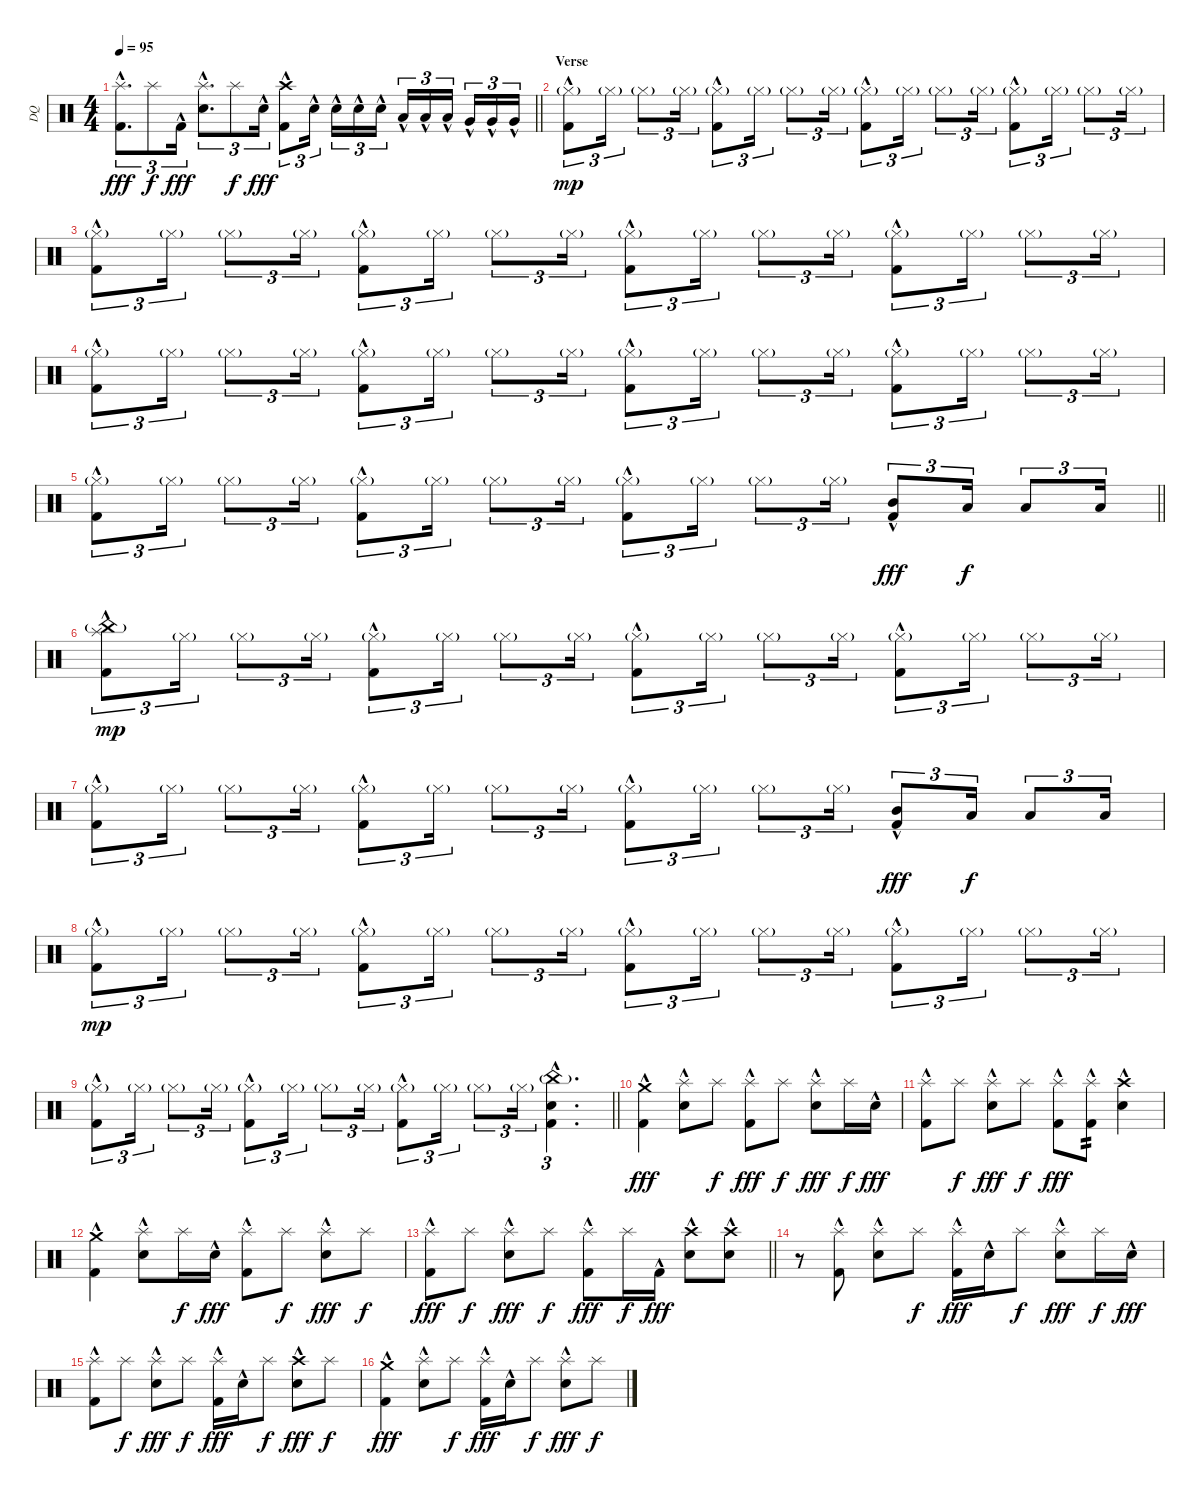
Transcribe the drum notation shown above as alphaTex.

\track ("DQ" "DQ") {instrument percussion}
\staff {score}
\articulation defaults
\ts (4 4)
\tempo 95
\clef neutral
\barLineRight lightlight
\ks c
("Kick (hit) 2"{hac} "Splash (hit)").8{d tu (3 2) dy fff} "Splash (hit)".8{tu (3 2) dy f} "Kick (hit) 2"{hac}.16{tu (3 2) dy fff} ("Snare (hit) 2"{hac} "Splash (hit)").8{d tu (3 2)} "Splash (hit)".8{tu (3 2) dy f} "Snare (hit) 2"{hac}.16{tu (3 2) dy fff} ("Kick (hit) 2"{hac} "Crash high (hit)").8{tu (3 2)} "Snare (hit) 2"{hac}.16{tu (3 2) beam splitsecondary} "Snare (hit) 2"{hac}.16{tu (3 2)} "Snare (hit) 2"{hac}.16{tu (3 2)} "Snare (hit) 2"{hac}.16{tu (3 2)} "Low Tom (hit)"{hac}.16{tu (3 2)} "Low Tom (hit)"{hac}.16{tu (3 2)} "Low Tom (hit)"{hac}.16{tu (3 2) beam splitsecondary} "Very Low Tom (hit)"{hac}.16{tu (3 2)} "Very Low Tom (hit)"{hac}.16{tu (3 2)} "Very Low Tom (hit)"{hac}.16{tu (3 2)} |
\section ("" "Verse")
("Kick (hit) 2"{hac} "Hi-Hat (closed)"{g}).8{tu (3 2) dy mp} "Hi-Hat (closed)"{g}.16{tu (3 2)} "Hi-Hat (closed)"{g}.8{tu (3 2)} "Hi-Hat (closed)"{g}.16{tu (3 2)} ("Kick (hit) 2"{hac} "Hi-Hat (closed)"{g}).8{tu (3 2)} "Hi-Hat (closed)"{g}.16{tu (3 2)} "Hi-Hat (closed)"{g}.8{tu (3 2)} "Hi-Hat (closed)"{g}.16{tu (3 2)} ("Kick (hit) 2"{hac} "Hi-Hat (closed)"{g}).8{tu (3 2)} "Hi-Hat (closed)"{g}.16{tu (3 2)} "Hi-Hat (closed)"{g}.8{tu (3 2)} "Hi-Hat (closed)"{g}.16{tu (3 2)} ("Kick (hit) 2"{hac} "Hi-Hat (closed)"{g}).8{tu (3 2)} "Hi-Hat (closed)"{g}.16{tu (3 2)} "Hi-Hat (closed)"{g}.8{tu (3 2)} "Hi-Hat (closed)"{g}.16{tu (3 2)} |
("Kick (hit) 2"{hac} "Hi-Hat (closed)"{g}).8{tu (3 2)} "Hi-Hat (closed)"{g}.16{tu (3 2)} "Hi-Hat (closed)"{g}.8{tu (3 2)} "Hi-Hat (closed)"{g}.16{tu (3 2)} ("Kick (hit) 2"{hac} "Hi-Hat (closed)"{g}).8{tu (3 2)} "Hi-Hat (closed)"{g}.16{tu (3 2)} "Hi-Hat (closed)"{g}.8{tu (3 2)} "Hi-Hat (closed)"{g}.16{tu (3 2)} ("Kick (hit) 2"{hac} "Hi-Hat (closed)"{g}).8{tu (3 2)} "Hi-Hat (closed)"{g}.16{tu (3 2)} "Hi-Hat (closed)"{g}.8{tu (3 2)} "Hi-Hat (closed)"{g}.16{tu (3 2)} ("Kick (hit) 2"{hac} "Hi-Hat (closed)"{g}).8{tu (3 2)} "Hi-Hat (closed)"{g}.16{tu (3 2)} "Hi-Hat (closed)"{g}.8{tu (3 2)} "Hi-Hat (closed)"{g}.16{tu (3 2)} |
("Kick (hit) 2"{hac} "Hi-Hat (closed)"{g}).8{tu (3 2)} "Hi-Hat (closed)"{g}.16{tu (3 2)} "Hi-Hat (closed)"{g}.8{tu (3 2)} "Hi-Hat (closed)"{g}.16{tu (3 2)} ("Kick (hit) 2"{hac} "Hi-Hat (closed)"{g}).8{tu (3 2)} "Hi-Hat (closed)"{g}.16{tu (3 2)} "Hi-Hat (closed)"{g}.8{tu (3 2)} "Hi-Hat (closed)"{g}.16{tu (3 2)} ("Kick (hit) 2"{hac} "Hi-Hat (closed)"{g}).8{tu (3 2)} "Hi-Hat (closed)"{g}.16{tu (3 2)} "Hi-Hat (closed)"{g}.8{tu (3 2)} "Hi-Hat (closed)"{g}.16{tu (3 2)} ("Kick (hit) 2"{hac} "Hi-Hat (closed)"{g}).8{tu (3 2)} "Hi-Hat (closed)"{g}.16{tu (3 2)} "Hi-Hat (closed)"{g}.8{tu (3 2)} "Hi-Hat (closed)"{g}.16{tu (3 2)} |
\barLineRight lightlight
("Kick (hit) 2"{hac} "Hi-Hat (closed)"{g}).8{tu (3 2)} "Hi-Hat (closed)"{g}.16{tu (3 2)} "Hi-Hat (closed)"{g}.8{tu (3 2)} "Hi-Hat (closed)"{g}.16{tu (3 2)} ("Kick (hit) 2"{hac} "Hi-Hat (closed)"{g}).8{tu (3 2)} "Hi-Hat (closed)"{g}.16{tu (3 2)} "Hi-Hat (closed)"{g}.8{tu (3 2)} "Hi-Hat (closed)"{g}.16{tu (3 2)} ("Kick (hit) 2"{hac} "Hi-Hat (closed)"{g}).8{tu (3 2)} "Hi-Hat (closed)"{g}.16{tu (3 2)} "Hi-Hat (closed)"{g}.8{tu (3 2)} "Hi-Hat (closed)"{g}.16{tu (3 2)} ("Kick (hit) 2"{hac} "Mid Tom (hit)").8{tu (3 2) dy fff} "Low Tom (hit)".16{tu (3 2) dy f} "Low Tom (hit)".8{tu (3 2)} "Low Tom (hit)".16{tu (3 2)} |
\section ("" "")
("Kick (hit) 2"{hac} "Splash (hit)" "China (hit)"{g}).8{tu (3 2) dy mp} "Hi-Hat (closed)"{g}.16{tu (3 2)} "Hi-Hat (closed)"{g}.8{tu (3 2)} "Hi-Hat (closed)"{g}.16{tu (3 2)} ("Kick (hit) 2"{hac} "Hi-Hat (closed)"{g}).8{tu (3 2)} "Hi-Hat (closed)"{g}.16{tu (3 2)} "Hi-Hat (closed)"{g}.8{tu (3 2)} "Hi-Hat (closed)"{g}.16{tu (3 2)} ("Kick (hit) 2"{hac} "Hi-Hat (closed)"{g}).8{tu (3 2)} "Hi-Hat (closed)"{g}.16{tu (3 2)} "Hi-Hat (closed)"{g}.8{tu (3 2)} "Hi-Hat (closed)"{g}.16{tu (3 2)} ("Kick (hit) 2"{hac} "Hi-Hat (closed)"{g}).8{tu (3 2)} "Hi-Hat (closed)"{g}.16{tu (3 2)} "Hi-Hat (closed)"{g}.8{tu (3 2)} "Hi-Hat (closed)"{g}.16{tu (3 2)} |
("Kick (hit) 2"{hac} "Hi-Hat (closed)"{g}).8{tu (3 2)} "Hi-Hat (closed)"{g}.16{tu (3 2)} "Hi-Hat (closed)"{g}.8{tu (3 2)} "Hi-Hat (closed)"{g}.16{tu (3 2)} ("Kick (hit) 2"{hac} "Hi-Hat (closed)"{g}).8{tu (3 2)} "Hi-Hat (closed)"{g}.16{tu (3 2)} "Hi-Hat (closed)"{g}.8{tu (3 2)} "Hi-Hat (closed)"{g}.16{tu (3 2)} ("Kick (hit) 2"{hac} "Hi-Hat (closed)"{g}).8{tu (3 2)} "Hi-Hat (closed)"{g}.16{tu (3 2)} "Hi-Hat (closed)"{g}.8{tu (3 2)} "Hi-Hat (closed)"{g}.16{tu (3 2)} ("Kick (hit) 2"{hac} "Mid Tom (hit)").8{tu (3 2) dy fff} "Low Tom (hit)".16{tu (3 2) dy f} "Low Tom (hit)".8{tu (3 2)} "Low Tom (hit)".16{tu (3 2)} |
("Kick (hit) 2"{hac} "Hi-Hat (closed)"{g}).8{tu (3 2) dy mp} "Hi-Hat (closed)"{g}.16{tu (3 2)} "Hi-Hat (closed)"{g}.8{tu (3 2)} "Hi-Hat (closed)"{g}.16{tu (3 2)} ("Kick (hit) 2"{hac} "Hi-Hat (closed)"{g}).8{tu (3 2)} "Hi-Hat (closed)"{g}.16{tu (3 2)} "Hi-Hat (closed)"{g}.8{tu (3 2)} "Hi-Hat (closed)"{g}.16{tu (3 2)} ("Kick (hit) 2"{hac} "Hi-Hat (closed)"{g}).8{tu (3 2)} "Hi-Hat (closed)"{g}.16{tu (3 2)} "Hi-Hat (closed)"{g}.8{tu (3 2)} "Hi-Hat (closed)"{g}.16{tu (3 2)} ("Kick (hit) 2"{hac} "Hi-Hat (closed)"{g}).8{tu (3 2)} "Hi-Hat (closed)"{g}.16{tu (3 2)} "Hi-Hat (closed)"{g}.8{tu (3 2)} "Hi-Hat (closed)"{g}.16{tu (3 2)} |
\barLineRight lightlight
("Kick (hit) 2"{hac} "Hi-Hat (closed)"{g}).8{tu (3 2)} "Hi-Hat (closed)"{g}.16{tu (3 2)} "Hi-Hat (closed)"{g}.8{tu (3 2)} "Hi-Hat (closed)"{g}.16{tu (3 2)} ("Kick (hit) 2"{hac} "Hi-Hat (closed)"{g}).8{tu (3 2)} "Hi-Hat (closed)"{g}.16{tu (3 2)} "Hi-Hat (closed)"{g}.8{tu (3 2)} "Hi-Hat (closed)"{g}.16{tu (3 2)} ("Kick (hit) 2"{hac} "Hi-Hat (closed)"{g}).8{tu (3 2)} "Hi-Hat (closed)"{g}.16{tu (3 2)} "Hi-Hat (closed)"{g}.8{tu (3 2)} "Hi-Hat (closed)"{g}.16{tu (3 2)} ("Kick (hit) 2"{hac} "Snare (hit) 2"{hac} "China (hit)"{g}).4{d tu (3 2)} |
\section ("" "")
("Kick (hit) 2"{hac} "Crash medium (hit)").4{dy fff} ("Snare (hit) 2"{hac} "Splash (hit)").8 "Splash (hit)".8{dy f} ("Kick (hit) 2"{hac} "Splash (hit)").8{dy fff} "Splash (hit)".8{dy f} ("Snare (hit) 2"{hac} "Splash (hit)").8{dy fff} "Splash (hit)".16{dy f} "Snare (hit) 2"{hac}.16{dy fff} |
("Kick (hit) 2"{hac} "Splash (hit)").8 "Splash (hit)".8{dy f} ("Snare (hit) 2"{hac} "Splash (hit)").8{dy fff} "Splash (hit)".8{dy f} ("Kick (hit) 2"{hac} "Splash (hit)").8{dy fff} ("Kick (hit) 2"{hac} "Splash (hit)").8{tp 2} ("Snare (hit) 2"{hac} "Crash high (hit)").4 |
("Kick (hit) 2"{hac} "Crash medium (hit)").4 ("Snare (hit) 2"{hac} "Splash (hit)").8 "Splash (hit)".16{dy f} "Snare (hit) 2"{hac}.16{dy fff} ("Kick (hit) 2"{hac} "Splash (hit)").8 "Splash (hit)".8{dy f} ("Snare (hit) 2"{hac} "Splash (hit)").8{dy fff} "Splash (hit)".8{dy f} |
\barLineRight lightlight
("Kick (hit) 2"{hac} "Splash (hit)").8{dy fff} "Splash (hit)".8{dy f} ("Snare (hit) 2"{hac} "Splash (hit)").8{dy fff} "Splash (hit)".8{dy f} ("Kick (hit) 2"{hac} "Splash (hit)").8{dy fff} "Splash (hit)".16{dy f} "Kick (hit) 2"{hac}.16{dy fff} ("Snare (hit) 2"{hac} "Crash high (hit)").8 ("Snare (hit) 2"{hac} "Crash high (hit)").8 |
\section ("" "")
r.8 ("Kick (hit) 2"{hac} "Splash (hit)").8 ("Snare (hit) 2"{hac} "Splash (hit)").8 "Splash (hit)".8{dy f} ("Kick (hit) 2"{hac} "Splash (hit)").16{dy fff} "Snare (hit) 2"{hac}.16 "Splash (hit)".8{dy f} ("Snare (hit) 2"{hac} "Splash (hit)").8{dy fff} "Splash (hit)".16{dy f} "Snare (hit) 2"{hac}.16{dy fff} |
("Kick (hit) 2"{hac} "Splash (hit)").8 "Splash (hit)".8{dy f} ("Snare (hit) 2"{hac} "Splash (hit)").8{dy fff} "Splash (hit)".8{dy f} ("Kick (hit) 2"{hac} "Splash (hit)").16{dy fff} "Snare (hit) 2"{hac}.16 "Splash (hit)".8{dy f} ("Snare (hit) 2"{hac} "Crash high (hit)").8{dy fff} "Splash (hit)".8{dy f} |
("Kick (hit) 2"{hac} "Crash medium (hit)").4{dy fff} ("Snare (hit) 2"{hac} "Splash (hit)").8 "Splash (hit)".8{dy f} ("Kick (hit) 2"{hac} "Splash (hit)").16{dy fff} "Snare (hit) 2"{hac}.16 "Splash (hit)".8{dy f} ("Snare (hit) 2"{hac} "Splash (hit)").8{dy fff} "Splash (hit)".8{dy f}
